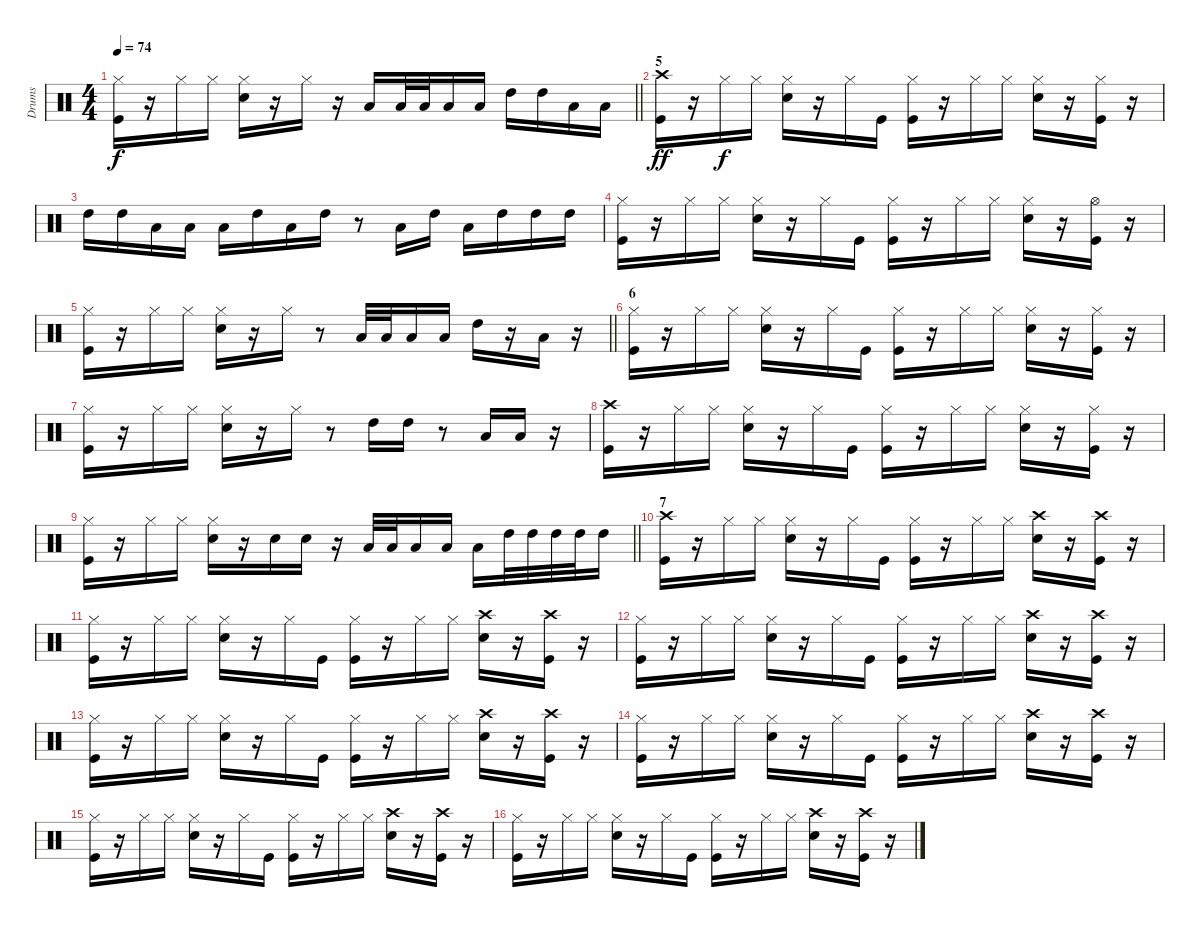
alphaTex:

\track ("Drums" "Drums") {instrument percussion}
\staff {score}
\articulation defaults
\ts (4 4)
\tempo 74
\clef neutral
\barLineRight lightlight
\ks c
("Kick (hit)" "Hi-Hat (closed)").16{dy f} r.16 "Hi-Hat (closed)".16 "Hi-Hat (closed)".16 ("Snare (hit) 2" "Hi-Hat (closed)").16 r.16 "Hi-Hat (closed)".16 r.16 "Low Floor Tom (hit)".16 "Low Floor Tom (hit)".32 "Low Floor Tom (hit)".32 "Low Floor Tom (hit)".16 "Low Floor Tom (hit)".16 "High Tom (hit)".16 "High Tom (hit)".16 "Low Floor Tom (hit)".16 "Low Floor Tom (hit)".16 |
\section ("" "5")
("Kick (hit)" "Crash high (hit)").16{dy ff} r.16 "Hi-Hat (closed)".16{dy f} "Hi-Hat (closed)".16 ("Snare (hit) 2" "Hi-Hat (closed)").16 r.16 "Hi-Hat (closed)".16 "Kick (hit)".16 ("Kick (hit)" "Hi-Hat (closed)").16 r.16 "Hi-Hat (closed)".16 "Hi-Hat (closed)".16 ("Snare (hit) 2" "Hi-Hat (closed)").16 r.16 ("Kick (hit)" "Hi-Hat (closed)").16 r.16 |
"High Tom (hit)".16 "High Tom (hit)".16 "Low Tom (hit)".16 "Low Floor Tom (hit)".16 "Low Floor Tom (hit)".16 "High Tom (hit)".16 "Low Floor Tom (hit)".16 "High Tom (hit)".16 r.8 "Low Floor Tom (hit)".16 "High Tom (hit)".16 "Low Floor Tom (hit)".16 "High Tom (hit)".16 "High Tom (hit)".16 "High Tom (hit)".16 |
("Kick (hit)" "Hi-Hat (closed)").16 r.16 "Hi-Hat (closed)".16 "Hi-Hat (closed)".16 ("Snare (hit) 2" "Hi-Hat (closed)").16 r.16 "Hi-Hat (closed)".16 "Kick (hit)".16 ("Kick (hit)" "Hi-Hat (closed)").16 r.16 "Hi-Hat (closed)".16 "Hi-Hat (closed)".16 ("Snare (hit) 2" "Hi-Hat (closed)").16 r.16 ("Kick (hit)" "Hi-Hat (open)").16 r.16 |
\barLineRight lightlight
("Kick (hit)" "Hi-Hat (closed)").16 r.16 "Hi-Hat (closed)".16 "Hi-Hat (closed)".16 ("Snare (hit) 2" "Hi-Hat (closed)").16 r.16 "Hi-Hat (closed)".16 r.8 "Low Floor Tom (hit)".32 "Low Floor Tom (hit)".32 "Low Floor Tom (hit)".16 "Low Floor Tom (hit)".16 "High Tom (hit)".16 r.16 "Low Floor Tom (hit)".16 r.16 |
\section ("" "6")
("Kick (hit)" "Hi-Hat (closed)").16 r.16 "Hi-Hat (closed)".16 "Hi-Hat (closed)".16 ("Snare (hit) 2" "Hi-Hat (closed)").16 r.16 "Hi-Hat (closed)".16 "Kick (hit)".16 ("Kick (hit)" "Hi-Hat (closed)").16 r.16 "Hi-Hat (closed)".16 "Hi-Hat (closed)".16 ("Snare (hit) 2" "Hi-Hat (closed)").16 r.16 ("Kick (hit)" "Hi-Hat (closed)").16 r.16 |
("Kick (hit)" "Hi-Hat (closed)").16 r.16 "Hi-Hat (closed)".16 "Hi-Hat (closed)".16 ("Snare (hit) 2" "Hi-Hat (closed)").16 r.16 "Hi-Hat (closed)".16 r.8 "High Tom (hit)".16 "High Tom (hit)".16 r.8 "Low Floor Tom (hit)".16 "Low Floor Tom (hit)".16 r.16 |
("Kick (hit)" "Crash high (hit)").16 r.16 "Hi-Hat (closed)".16 "Hi-Hat (closed)".16 ("Snare (hit) 2" "Hi-Hat (closed)").16 r.16 "Hi-Hat (closed)".16 "Kick (hit)".16 ("Kick (hit)" "Hi-Hat (closed)").16 r.16 "Hi-Hat (closed)".16 "Hi-Hat (closed)".16 ("Snare (hit) 2" "Hi-Hat (closed)").16 r.16 ("Kick (hit)" "Hi-Hat (closed)").16 r.16 |
\barLineRight lightlight
("Kick (hit)" "Hi-Hat (closed)").16 r.16 "Hi-Hat (closed)".16 "Hi-Hat (closed)".16 ("Snare (hit) 2" "Hi-Hat (closed)").16 r.16 "Snare (hit) 2".16 "Snare (hit) 2".16 r.16 "Low Floor Tom (hit)".32 "Low Floor Tom (hit)".32 "Low Floor Tom (hit)".16 "Low Floor Tom (hit)".16 "Low Floor Tom (hit)".16 "High Tom (hit)".32 "High Tom (hit)".32 "High Tom (hit)".32 "High Tom (hit)".32 "High Tom (hit)".16 |
\section ("" "7")
("Kick (hit)" "Crash high (hit)").16 r.16 "Hi-Hat (closed)".16 "Hi-Hat (closed)".16 ("Snare (hit) 2" "Hi-Hat (closed)").16 r.16 "Hi-Hat (closed)".16 "Kick (hit)".16 ("Kick (hit)" "Hi-Hat (closed)").16 r.16 "Hi-Hat (closed)".16 "Hi-Hat (closed)".16 ("Crash high (hit)" "Snare (hit) 2").16 r.16 ("Kick (hit)" "Crash high (hit)").16 r.16 |
("Kick (hit)" "Hi-Hat (closed)").16 r.16 "Hi-Hat (closed)".16 "Hi-Hat (closed)".16 ("Snare (hit) 2" "Hi-Hat (closed)").16 r.16 "Hi-Hat (closed)".16 "Kick (hit)".16 ("Kick (hit)" "Hi-Hat (closed)").16 r.16 "Hi-Hat (closed)".16 "Hi-Hat (closed)".16 ("Crash high (hit)" "Snare (hit) 2").16 r.16 ("Kick (hit)" "Crash high (hit)").16 r.16 |
("Kick (hit)" "Hi-Hat (closed)").16 r.16 "Hi-Hat (closed)".16 "Hi-Hat (closed)".16 ("Snare (hit) 2" "Hi-Hat (closed)").16 r.16 "Hi-Hat (closed)".16 "Kick (hit)".16 ("Kick (hit)" "Hi-Hat (closed)").16 r.16 "Hi-Hat (closed)".16 "Hi-Hat (closed)".16 ("Crash high (hit)" "Snare (hit) 2").16 r.16 ("Kick (hit)" "Crash high (hit)").16 r.16 |
("Kick (hit)" "Hi-Hat (closed)").16 r.16 "Hi-Hat (closed)".16 "Hi-Hat (closed)".16 ("Snare (hit) 2" "Hi-Hat (closed)").16 r.16 "Hi-Hat (closed)".16 "Kick (hit)".16 ("Kick (hit)" "Hi-Hat (closed)").16 r.16 "Hi-Hat (closed)".16 "Hi-Hat (closed)".16 ("Crash high (hit)" "Snare (hit) 2").16 r.16 ("Kick (hit)" "Crash high (hit)").16 r.16 |
("Kick (hit)" "Hi-Hat (closed)").16 r.16 "Hi-Hat (closed)".16 "Hi-Hat (closed)".16 ("Snare (hit) 2" "Hi-Hat (closed)").16 r.16 "Hi-Hat (closed)".16 "Kick (hit)".16 ("Kick (hit)" "Hi-Hat (closed)").16 r.16 "Hi-Hat (closed)".16 "Hi-Hat (closed)".16 ("Crash high (hit)" "Snare (hit) 2").16 r.16 ("Kick (hit)" "Crash high (hit)").16 r.16 |
("Kick (hit)" "Hi-Hat (closed)").16 r.16 "Hi-Hat (closed)".16 "Hi-Hat (closed)".16 ("Snare (hit) 2" "Hi-Hat (closed)").16 r.16 "Hi-Hat (closed)".16 "Kick (hit)".16 ("Kick (hit)" "Hi-Hat (closed)").16 r.16 "Hi-Hat (closed)".16 "Hi-Hat (closed)".16 ("Crash high (hit)" "Snare (hit) 2").16 r.16 ("Kick (hit)" "Crash high (hit)").16 r.16 |
("Kick (hit)" "Hi-Hat (closed)").16 r.16 "Hi-Hat (closed)".16 "Hi-Hat (closed)".16 ("Snare (hit) 2" "Hi-Hat (closed)").16 r.16 "Hi-Hat (closed)".16 "Kick (hit)".16 ("Kick (hit)" "Hi-Hat (closed)").16 r.16 "Hi-Hat (closed)".16 "Hi-Hat (closed)".16 ("Crash high (hit)" "Snare (hit) 2").16 r.16 ("Kick (hit)" "Crash high (hit)").16 r.16
